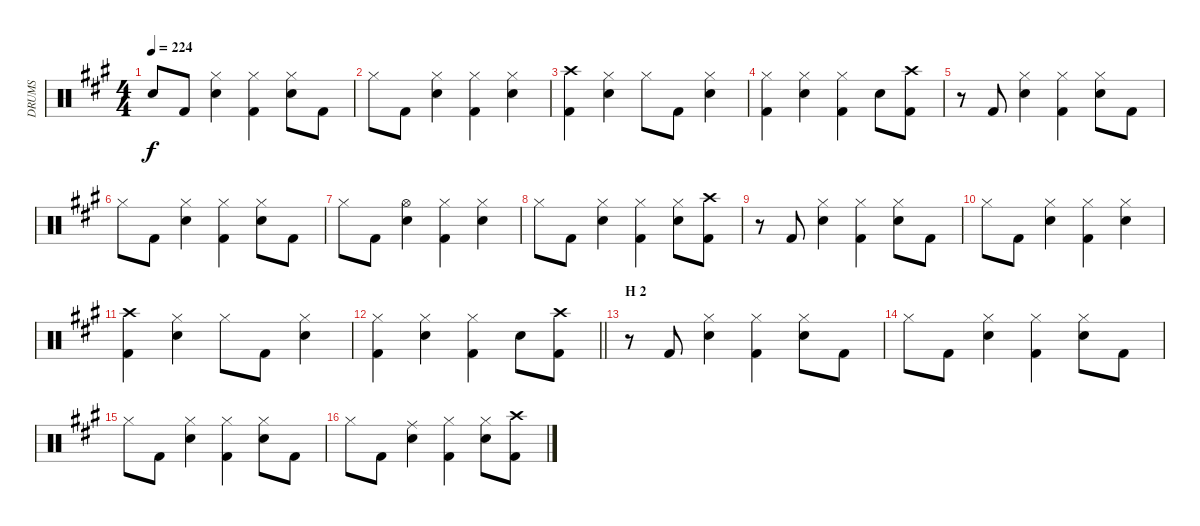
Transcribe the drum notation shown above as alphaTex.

\track ("DRUMS" "DRUMS") {instrument percussion}
\staff {score}
\articulation defaults
\ts (4 4)
\tempo 224
\clef neutral
\ks a "Snare (hit)"{t}.8{dy f} "Kick (hit) 2".8
("Hi-Hat (closed)" "Snare (hit) 2").4 ("Hi-Hat (closed)" "Kick (hit) 2").4 ("Hi-Hat (closed)" "Snare (hit) 2").8 "Kick (hit) 2".8 |
"Hi-Hat (closed)".8 "Kick (hit) 2".8 ("Hi-Hat (closed)" "Snare (hit) 2").4 ("Hi-Hat (closed)" "Kick (hit) 2").4 ("Hi-Hat (closed)" "Snare (hit) 2").4 |
("Crash high (hit)" "Kick (hit) 2").4 ("Hi-Hat (closed)" "Snare (hit) 2").4 "Hi-Hat (closed)".8 "Kick (hit) 2".8 ("Hi-Hat (closed)" "Snare (hit) 2").4 |
("Hi-Hat (closed)" "Kick (hit) 2").4 ("Hi-Hat (closed)" "Snare (hit) 2").4 ("Hi-Hat (closed)" "Kick (hit) 2").4 "Snare (hit) 2".8 ("Crash high (hit)" "Kick (hit) 2").8 |
r.8 "Kick (hit) 2".8 ("Hi-Hat (closed)" "Snare (hit) 2").4 ("Hi-Hat (closed)" "Kick (hit) 2").4 ("Hi-Hat (closed)" "Snare (hit) 2").8 "Kick (hit) 2".8 |
"Hi-Hat (closed)".8 "Kick (hit) 2".8 ("Hi-Hat (closed)" "Snare (hit) 2").4 ("Hi-Hat (closed)" "Kick (hit) 2").4 ("Hi-Hat (closed)" "Snare (hit) 2").8 "Kick (hit) 2".8 |
"Hi-Hat (closed)".8 "Kick (hit) 2".8 ("Hi-Hat (open)" "Snare (hit) 2").4 ("Hi-Hat (closed)" "Kick (hit) 2").4 ("Hi-Hat (closed)" "Snare (hit) 2").4 |
"Hi-Hat (closed)".8 "Kick (hit) 2".8 ("Hi-Hat (closed)" "Snare (hit) 2").4 ("Hi-Hat (closed)" "Kick (hit) 2").4 ("Hi-Hat (closed)" "Snare (hit) 2").8 ("Crash high (hit)" "Kick (hit) 2").8 |
r.8 "Kick (hit) 2".8 ("Hi-Hat (closed)" "Snare (hit) 2").4 ("Hi-Hat (closed)" "Kick (hit) 2").4 ("Hi-Hat (closed)" "Snare (hit) 2").8 "Kick (hit) 2".8 |
"Hi-Hat (closed)".8 "Kick (hit) 2".8 ("Hi-Hat (closed)" "Snare (hit) 2").4 ("Hi-Hat (closed)" "Kick (hit) 2").4 ("Hi-Hat (closed)" "Snare (hit) 2").4 |
("Crash high (hit)" "Kick (hit) 2").4 ("Hi-Hat (closed)" "Snare (hit) 2").4 "Hi-Hat (closed)".8 "Kick (hit) 2".8 ("Hi-Hat (closed)" "Snare (hit) 2").4 |
\barLineRight lightlight
("Hi-Hat (closed)" "Kick (hit) 2").4 ("Hi-Hat (closed)" "Snare (hit) 2").4 ("Hi-Hat (closed)" "Kick (hit) 2").4 "Snare (hit) 2".8 ("Crash high (hit)" "Kick (hit) 2").8 |
\section ("" "H 2")
r.8 "Kick (hit) 2".8 ("Hi-Hat (closed)" "Snare (hit) 2").4 ("Hi-Hat (closed)" "Kick (hit) 2").4 ("Hi-Hat (closed)" "Snare (hit) 2").8 "Kick (hit) 2".8 |
"Hi-Hat (closed)".8 "Kick (hit) 2".8 ("Hi-Hat (closed)" "Snare (hit) 2").4 ("Hi-Hat (closed)" "Kick (hit) 2").4 ("Hi-Hat (closed)" "Snare (hit) 2").8 "Kick (hit) 2".8 |
"Hi-Hat (closed)".8 "Kick (hit) 2".8 ("Hi-Hat (closed)" "Snare (hit) 2").4 ("Hi-Hat (closed)" "Kick (hit) 2").4 ("Hi-Hat (closed)" "Snare (hit) 2").8 "Kick (hit) 2".8 |
"Hi-Hat (closed)".8 "Kick (hit) 2".8 ("Ride (middle)" "Snare (hit) 2").4 ("Hi-Hat (closed)" "Kick (hit) 2").4 ("Hi-Hat (closed)" "Snare (hit) 2").8 ("Crash high (hit)" "Kick (hit) 2").8
